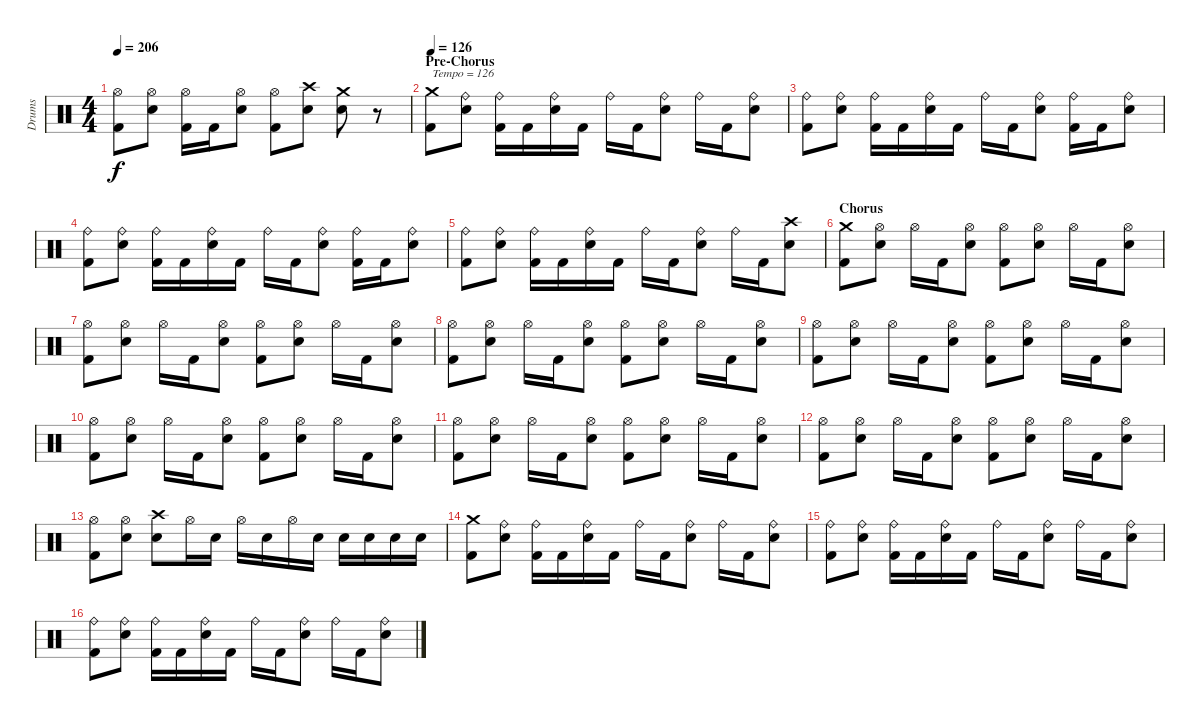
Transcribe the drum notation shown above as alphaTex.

\track ("Drums" "Drums") {instrument percussion}
\staff {score}
\articulation defaults
\ts (4 4)
\tempo 206
\clef neutral
\ks c
("Hi-Hat (open)" "Kick (hit) 2").8{dy f} ("Hi-Hat (open)" "Electric Snare (hit)").8 ("Hi-Hat (open)" "Kick (hit) 2").16 "Kick (hit) 2".16 ("Hi-Hat (open)" "Electric Snare (hit)").8 ("Hi-Hat (open)" "Kick (hit) 2").8 ("Crash high (hit)" "Electric Snare (hit)").8 ("Crash medium (hit)" "Electric Snare (hit)").8 r.8 |
\section ("" "Pre-Chorus")
\tempo 126
("Crash medium (hit)" "Kick (hit) 2").8{txt "Tempo = 126"} ("Ride (bell)" "Electric Snare (hit)").8 ("Ride (bell)" "Kick (hit) 2").16 "Kick (hit) 2".16 ("Ride (bell)" "Electric Snare (hit)").16 "Kick (hit) 2".16 "Ride (bell)".16 "Kick (hit) 2".16 ("Ride (bell)" "Electric Snare (hit)").8 "Ride (bell)".16 "Kick (hit) 2".16 ("Ride (bell)" "Electric Snare (hit)").8 |
("Ride (bell)" "Kick (hit) 2").8 ("Ride (bell)" "Electric Snare (hit)").8 ("Ride (bell)" "Kick (hit) 2").16 "Kick (hit) 2".16 ("Ride (bell)" "Electric Snare (hit)").16 "Kick (hit) 2".16 "Ride (bell)".16 "Kick (hit) 2".16 ("Ride (bell)" "Electric Snare (hit)").8 ("Ride (bell)" "Kick (hit) 2").16 "Kick (hit) 2".16 ("Ride (bell)" "Electric Snare (hit)").8 |
("Ride (bell)" "Kick (hit) 2").8 ("Ride (bell)" "Electric Snare (hit)").8 ("Ride (bell)" "Kick (hit) 2").16 "Kick (hit) 2".16 ("Ride (bell)" "Electric Snare (hit)").16 "Kick (hit) 2".16 "Ride (bell)".16 "Kick (hit) 2".16 ("Ride (bell)" "Electric Snare (hit)").8 ("Ride (bell)" "Kick (hit) 2").16 "Kick (hit) 2".16 ("Ride (bell)" "Electric Snare (hit)").8 |
("Ride (bell)" "Kick (hit) 2").8 ("Ride (bell)" "Electric Snare (hit)").8 ("Ride (bell)" "Kick (hit) 2").16 "Kick (hit) 2".16 ("Ride (bell)" "Electric Snare (hit)").16 "Kick (hit) 2".16 "Ride (bell)".16 "Kick (hit) 2".16 ("Ride (bell)" "Electric Snare (hit)").8 "Ride (bell)".16 "Kick (hit) 2".16 ("Crash high (hit)" "Electric Snare (hit)").8 |
\section ("" "Chorus")
("Crash medium (hit)" "Kick (hit) 2").8 ("Hi-Hat (open)" "Electric Snare (hit)").8 "Hi-Hat (open)".16 "Kick (hit) 2".16 ("Hi-Hat (open)" "Electric Snare (hit)").8 ("Hi-Hat (open)" "Kick (hit) 2").8 ("Hi-Hat (open)" "Electric Snare (hit)").8 "Hi-Hat (open)".16 "Kick (hit) 2".16 ("Hi-Hat (open)" "Electric Snare (hit)").8 |
("Hi-Hat (open)" "Kick (hit) 2").8 ("Hi-Hat (open)" "Electric Snare (hit)").8 "Hi-Hat (open)".16 "Kick (hit) 2".16 ("Hi-Hat (open)" "Electric Snare (hit)").8 ("Hi-Hat (open)" "Kick (hit) 2").8 ("Hi-Hat (open)" "Electric Snare (hit)").8 "Hi-Hat (open)".16 "Kick (hit) 2".16 ("Hi-Hat (open)" "Electric Snare (hit)").8 |
("Hi-Hat (open)" "Kick (hit) 2").8 ("Hi-Hat (open)" "Electric Snare (hit)").8 "Hi-Hat (open)".16 "Kick (hit) 2".16 ("Hi-Hat (open)" "Electric Snare (hit)").8 ("Hi-Hat (open)" "Kick (hit) 2").8 ("Hi-Hat (open)" "Electric Snare (hit)").8 "Hi-Hat (open)".16 "Kick (hit) 2".16 ("Hi-Hat (open)" "Electric Snare (hit)").8 |
("Hi-Hat (open)" "Kick (hit) 2").8 ("Hi-Hat (open)" "Electric Snare (hit)").8 "Hi-Hat (open)".16 "Kick (hit) 2".16 ("Hi-Hat (open)" "Electric Snare (hit)").8 ("Hi-Hat (open)" "Kick (hit) 2").8 ("Hi-Hat (open)" "Electric Snare (hit)").8 "Hi-Hat (open)".16 "Kick (hit) 2".16 ("Hi-Hat (open)" "Electric Snare (hit)").8 |
("Hi-Hat (open)" "Kick (hit) 2").8 ("Hi-Hat (open)" "Electric Snare (hit)").8 "Hi-Hat (open)".16 "Kick (hit) 2".16 ("Hi-Hat (open)" "Electric Snare (hit)").8 ("Hi-Hat (open)" "Kick (hit) 2").8 ("Hi-Hat (open)" "Electric Snare (hit)").8 "Hi-Hat (open)".16 "Kick (hit) 2".16 ("Hi-Hat (open)" "Electric Snare (hit)").8 |
("Hi-Hat (open)" "Kick (hit) 2").8 ("Hi-Hat (open)" "Electric Snare (hit)").8 "Hi-Hat (open)".16 "Kick (hit) 2".16 ("Hi-Hat (open)" "Electric Snare (hit)").8 ("Hi-Hat (open)" "Kick (hit) 2").8 ("Hi-Hat (open)" "Electric Snare (hit)").8 "Hi-Hat (open)".16 "Kick (hit) 2".16 ("Hi-Hat (open)" "Electric Snare (hit)").8 |
("Hi-Hat (open)" "Kick (hit) 2").8 ("Hi-Hat (open)" "Electric Snare (hit)").8 "Hi-Hat (open)".16 "Kick (hit) 2".16 ("Hi-Hat (open)" "Electric Snare (hit)").8 ("Hi-Hat (open)" "Kick (hit) 2").8 ("Hi-Hat (open)" "Electric Snare (hit)").8 "Hi-Hat (open)".16 "Kick (hit) 2".16 ("Hi-Hat (open)" "Electric Snare (hit)").8 |
("Hi-Hat (open)" "Kick (hit) 2").8 ("Hi-Hat (open)" "Electric Snare (hit)").8 ("Crash high (hit)" "Electric Snare (hit)").8 "Hi-Hat (open)".16 "Electric Snare (hit)".16 "Hi-Hat (open)".16 "Electric Snare (hit)".16 "Hi-Hat (open)".16 "Electric Snare (hit)".16 "Electric Snare (hit)".16 "Electric Snare (hit)".16 "Electric Snare (hit)".16 "Electric Snare (hit)".16 |
("Crash medium (hit)" "Kick (hit) 2").8 ("Ride (bell)" "Electric Snare (hit)").8 ("Ride (bell)" "Kick (hit) 2").16 "Kick (hit) 2".16 ("Ride (bell)" "Electric Snare (hit)").16 "Kick (hit) 2".16 "Ride (bell)".16 "Kick (hit) 2".16 ("Ride (bell)" "Electric Snare (hit)").8 "Ride (bell)".16 "Kick (hit) 2".16 ("Ride (bell)" "Electric Snare (hit)").8 |
("Ride (bell)" "Kick (hit) 2").8 ("Ride (bell)" "Electric Snare (hit)").8 ("Ride (bell)" "Kick (hit) 2").16 "Kick (hit) 2".16 ("Ride (bell)" "Electric Snare (hit)").16 "Kick (hit) 2".16 "Ride (bell)".16 "Kick (hit) 2".16 ("Ride (bell)" "Electric Snare (hit)").8 "Ride (bell)".16 "Kick (hit) 2".16 ("Ride (bell)" "Electric Snare (hit)").8 |
("Ride (bell)" "Kick (hit) 2").8 ("Ride (bell)" "Electric Snare (hit)").8 ("Ride (bell)" "Kick (hit) 2").16 "Kick (hit) 2".16 ("Ride (bell)" "Electric Snare (hit)").16 "Kick (hit) 2".16 "Ride (bell)".16 "Kick (hit) 2".16 ("Ride (bell)" "Electric Snare (hit)").8 "Ride (bell)".16 "Kick (hit) 2".16 ("Ride (bell)" "Electric Snare (hit)").8
